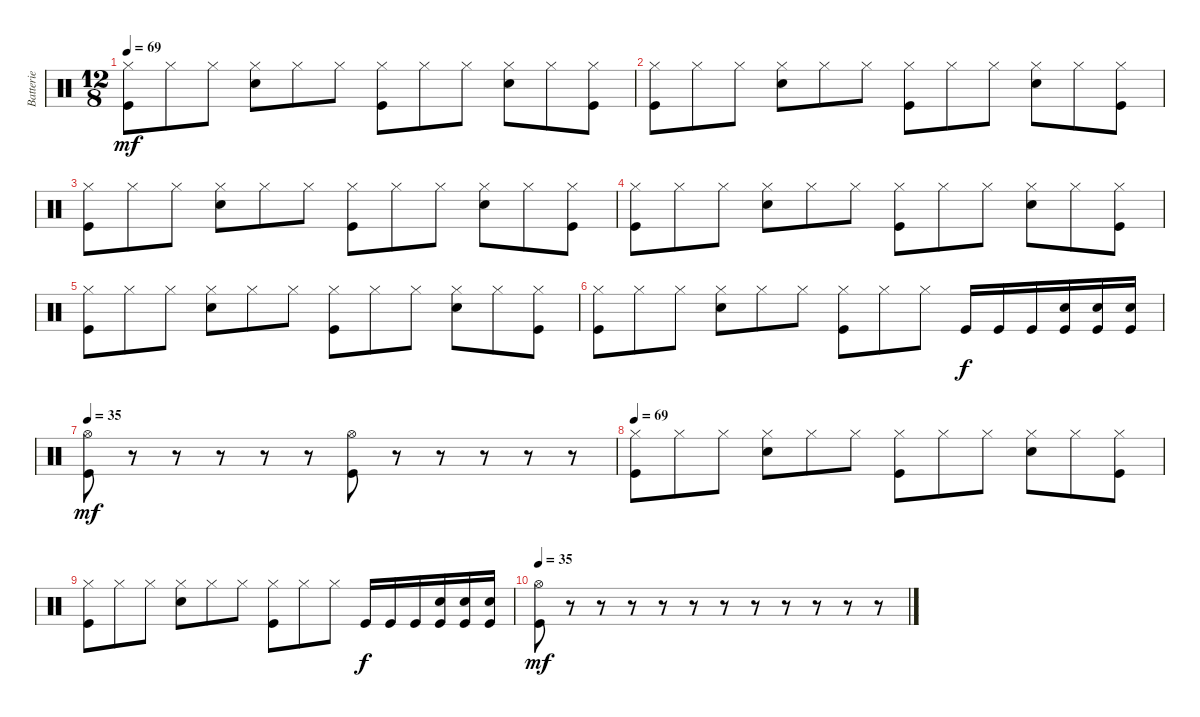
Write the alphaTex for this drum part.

\track ("Batterie" "Batterie") {instrument percussion}
\staff {score}
\articulation defaults
\ts (12 8)
\tempo 69
\clef neutral
\ks c
("Hi-Hat (closed)" "Kick (hit)").8{dy mf} "Hi-Hat (closed)".8 "Hi-Hat (closed)".8 ("Hi-Hat (closed)" "Snare (hit) 2").8 "Hi-Hat (closed)".8 "Hi-Hat (closed)".8 ("Hi-Hat (closed)" "Kick (hit)").8 "Hi-Hat (closed)".8 "Hi-Hat (closed)".8 ("Hi-Hat (closed)" "Snare (hit) 2").8 "Hi-Hat (closed)".8 ("Hi-Hat (closed)" "Kick (hit)").8 |
("Hi-Hat (closed)" "Kick (hit)").8 "Hi-Hat (closed)".8 "Hi-Hat (closed)".8 ("Hi-Hat (closed)" "Snare (hit) 2").8 "Hi-Hat (closed)".8 "Hi-Hat (closed)".8 ("Hi-Hat (closed)" "Kick (hit)").8 "Hi-Hat (closed)".8 "Hi-Hat (closed)".8 ("Hi-Hat (closed)" "Snare (hit) 2").8 "Hi-Hat (closed)".8 ("Hi-Hat (closed)" "Kick (hit)").8 |
("Hi-Hat (closed)" "Kick (hit)").8 "Hi-Hat (closed)".8 "Hi-Hat (closed)".8 ("Hi-Hat (closed)" "Snare (hit) 2").8 "Hi-Hat (closed)".8 "Hi-Hat (closed)".8 ("Hi-Hat (closed)" "Kick (hit)").8 "Hi-Hat (closed)".8 "Hi-Hat (closed)".8 ("Hi-Hat (closed)" "Snare (hit) 2").8 "Hi-Hat (closed)".8 ("Hi-Hat (closed)" "Kick (hit)").8 |
("Hi-Hat (closed)" "Kick (hit)").8 "Hi-Hat (closed)".8 "Hi-Hat (closed)".8 ("Hi-Hat (closed)" "Snare (hit) 2").8 "Hi-Hat (closed)".8 "Hi-Hat (closed)".8 ("Hi-Hat (closed)" "Kick (hit)").8 "Hi-Hat (closed)".8 "Hi-Hat (closed)".8 ("Hi-Hat (closed)" "Snare (hit) 2").8 "Hi-Hat (closed)".8 ("Hi-Hat (closed)" "Kick (hit)").8 |
("Hi-Hat (closed)" "Kick (hit)").8 "Hi-Hat (closed)".8 "Hi-Hat (closed)".8 ("Hi-Hat (closed)" "Snare (hit) 2").8 "Hi-Hat (closed)".8 "Hi-Hat (closed)".8 ("Hi-Hat (closed)" "Kick (hit)").8 "Hi-Hat (closed)".8 "Hi-Hat (closed)".8 ("Hi-Hat (closed)" "Snare (hit) 2").8 "Hi-Hat (closed)".8 ("Hi-Hat (closed)" "Kick (hit)").8 |
("Hi-Hat (closed)" "Kick (hit)").8 "Hi-Hat (closed)".8 "Hi-Hat (closed)".8 ("Hi-Hat (closed)" "Snare (hit) 2").8 "Hi-Hat (closed)".8 "Hi-Hat (closed)".8 ("Hi-Hat (closed)" "Kick (hit)").8 "Hi-Hat (closed)".8 "Hi-Hat (closed)".8 "Kick (hit)".16{dy f} "Kick (hit)".16 "Kick (hit)".16 ("Snare (hit) 2" "Kick (hit)").16 ("Snare (hit) 2" "Kick (hit)").16 ("Snare (hit) 2" "Kick (hit)").16 |
\tempo 35
("Hi-Hat (open)" "Kick (hit)").8{dy mf} r.8 r.8 r.8 r.8 r.8 ("Hi-Hat (open)" "Kick (hit)").8 r.8 r.8 r.8 r.8 r.8 |
\tempo 69
("Hi-Hat (closed)" "Kick (hit)").8 "Hi-Hat (closed)".8 "Hi-Hat (closed)".8 ("Hi-Hat (closed)" "Snare (hit) 2").8 "Hi-Hat (closed)".8 "Hi-Hat (closed)".8 ("Hi-Hat (closed)" "Kick (hit)").8 "Hi-Hat (closed)".8 "Hi-Hat (closed)".8 ("Hi-Hat (closed)" "Snare (hit) 2").8 "Hi-Hat (closed)".8 ("Hi-Hat (closed)" "Kick (hit)").8 |
("Hi-Hat (closed)" "Kick (hit)").8 "Hi-Hat (closed)".8 "Hi-Hat (closed)".8 ("Hi-Hat (closed)" "Snare (hit) 2").8 "Hi-Hat (closed)".8 "Hi-Hat (closed)".8 ("Hi-Hat (closed)" "Kick (hit)").8 "Hi-Hat (closed)".8 "Hi-Hat (closed)".8 "Kick (hit)".16{dy f} "Kick (hit)".16 "Kick (hit)".16 ("Snare (hit) 2" "Kick (hit)").16 ("Snare (hit) 2" "Kick (hit)").16 ("Snare (hit) 2" "Kick (hit)").16 |
\tempo 35
("Hi-Hat (open)" "Kick (hit)").8{dy mf} r.8 r.8 r.8 r.8 r.8 r.8 r.8 r.8 r.8 r.8 r.8
